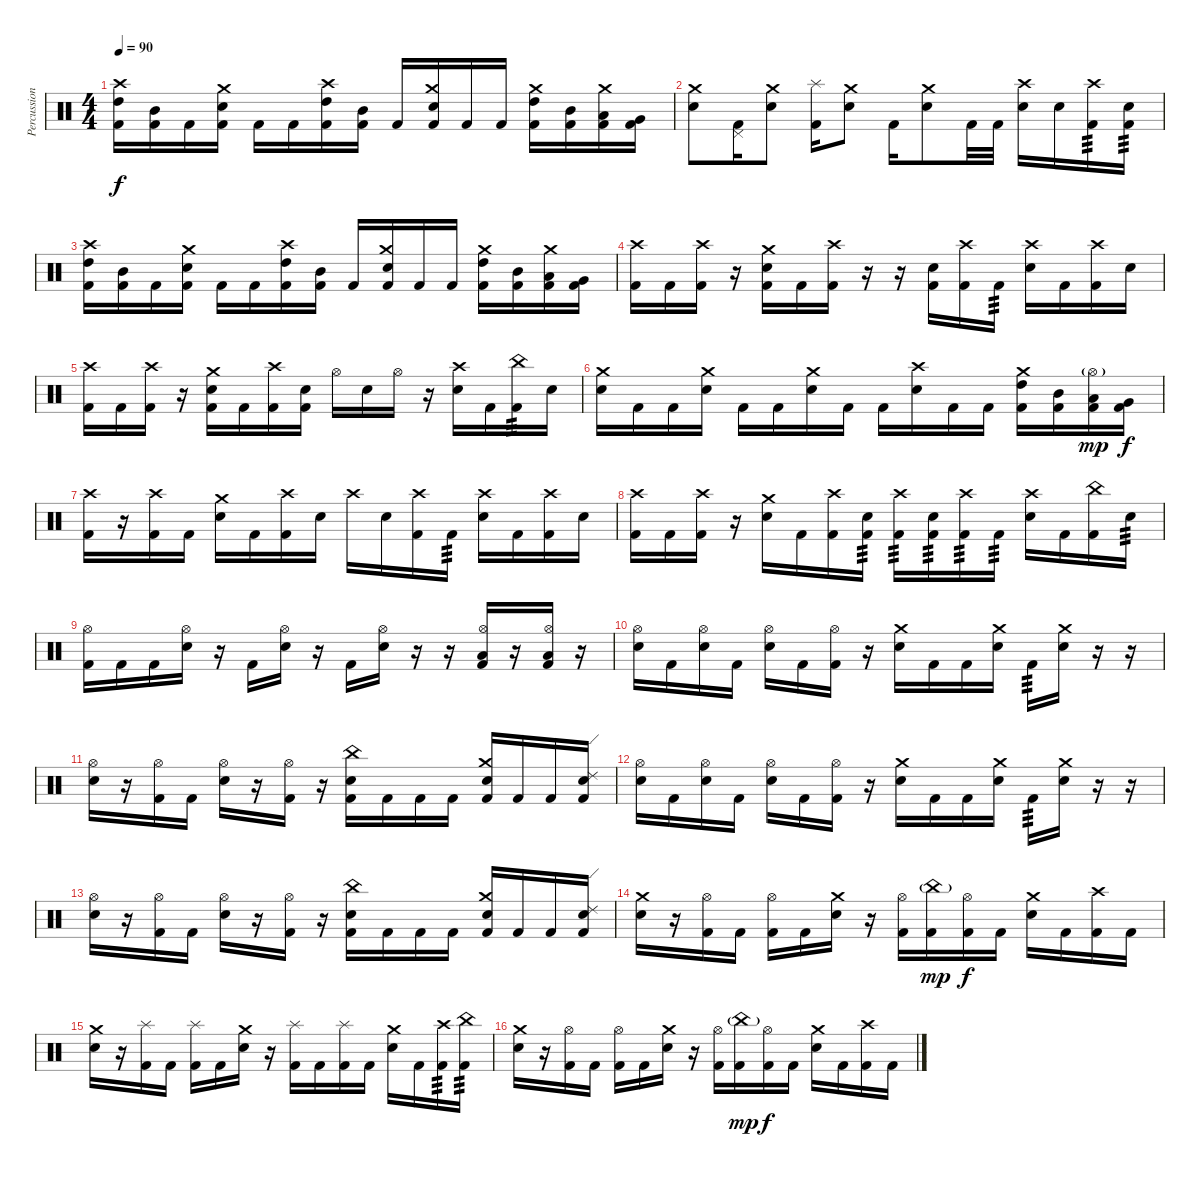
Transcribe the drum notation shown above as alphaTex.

\track ("Percussion" "Percussion") {instrument percussion}
\staff {score}
\articulation defaults
\ts (4 4)
\tempo 90
\clef neutral
\ks c
("Crash high (hit)" "High Tom (hit)" "Kick (hit) 2").16{dy f} ("Mid Tom (hit)" "Kick (hit) 2").16 "Kick (hit) 2".16 ("Crash medium (hit)" "Electric Snare (hit)" "Kick (hit) 2").16 "Kick (hit) 2".16 "Kick (hit) 2".16 ("Crash high (hit)" "High Tom (hit)" "Kick (hit) 2").16 ("Mid Tom (hit)" "Kick (hit) 2").16 "Kick (hit) 2".16 ("Crash medium (hit)" "Electric Snare (hit)" "Kick (hit) 2").16 "Kick (hit) 2".16 "Kick (hit) 2".16 ("Crash medium (hit)" "High Tom (hit)" "Kick (hit) 2").16 ("Mid Tom (hit)" "Kick (hit) 2").16 ("Crash medium (hit)" "Low Tom (hit)" "Kick (hit) 2").16 ("Very Low Tom (hit)" "Kick (hit) 2").16 |
("Crash medium (hit)" "Electric Snare (hit)").8 ("Pedal Hi-Hat (hit)" "Kick (hit) 2").16 ("Crash medium (hit)" "Electric Snare (hit)").8 ("Splash (hit)" "Kick (hit) 2").16 ("Crash medium (hit)" "Electric Snare (hit)").8 "Kick (hit) 2".16 ("Crash medium (hit)" "Electric Snare (hit)").8 "Kick (hit) 2".32 "Kick (hit) 2".32 ("Crash high (hit)" "Electric Snare (hit)").16 "Electric Snare (hit)".16 ("Crash high (hit)" "Kick (hit) 2").16{tp 3} ("Electric Snare (hit)" "Kick (hit) 2").16{tp 3} |
("Crash high (hit)" "High Tom (hit)" "Kick (hit) 2").16 ("Mid Tom (hit)" "Kick (hit) 2").16 "Kick (hit) 2".16 ("Crash medium (hit)" "Electric Snare (hit)" "Kick (hit) 2").16 "Kick (hit) 2".16 "Kick (hit) 2".16 ("Crash high (hit)" "High Tom (hit)" "Kick (hit) 2").16 ("Mid Tom (hit)" "Kick (hit) 2").16 "Kick (hit) 2".16 ("Crash medium (hit)" "Electric Snare (hit)" "Kick (hit) 2").16 "Kick (hit) 2".16 "Kick (hit) 2".16 ("Crash medium (hit)" "High Tom (hit)" "Kick (hit) 2").16 ("Mid Tom (hit)" "Kick (hit) 2").16 ("Crash medium (hit)" "Low Tom (hit)" "Kick (hit) 2").16 ("Very Low Tom (hit)" "Kick (hit) 2").16 |
("Crash high (hit)" "Kick (hit) 2").16 "Kick (hit) 2".16 ("Crash high (hit)" "Kick (hit) 2").16 r.16 ("Crash medium (hit)" "Electric Snare (hit)" "Kick (hit) 2").16 "Kick (hit) 2".16 ("Crash high (hit)" "Kick (hit) 2").16 r.16 r.16 ("Electric Snare (hit)" "Kick (hit) 2").16 ("Crash high (hit)" "Kick (hit) 2").16 "Kick (hit) 2".16{tp 3} ("Crash high (hit)" "Electric Snare (hit)").16 "Kick (hit) 2".16 ("Crash high (hit)" "Kick (hit) 2").16 "Electric Snare (hit)".16 |
("Crash high (hit)" "Kick (hit) 2").16 "Kick (hit) 2".16 ("Crash high (hit)" "Kick (hit) 2").16 r.16 ("Crash medium (hit)" "Electric Snare (hit)" "Kick (hit) 2").16 "Kick (hit) 2".16 ("Crash high (hit)" "Kick (hit) 2").16 ("Electric Snare (hit)" "Kick (hit) 2").16 "Hi-Hat (open)".16 "Electric Snare (hit)".16 "Hi-Hat (open)".16 r.16 ("Crash high (hit)" "Electric Snare (hit)").16 "Kick (hit) 2".16 ("China (hit)" "Kick (hit) 2").16{tp 3} "Electric Snare (hit)".16 |
("Crash medium (hit)" "Electric Snare (hit)").16 "Kick (hit) 2".16 "Kick (hit) 2".16 ("Crash medium (hit)" "Electric Snare (hit)").16 "Kick (hit) 2".16 "Kick (hit) 2".16 ("Crash medium (hit)" "Electric Snare (hit)").16 "Kick (hit) 2".16 "Kick (hit) 2".16 ("Crash high (hit)" "Electric Snare (hit)").16 "Kick (hit) 2".16 "Kick (hit) 2".16 ("Crash medium (hit)" "High Tom (hit)" "Kick (hit) 2").16 ("Mid Tom (hit)" "Kick (hit) 2").16 ("Hi-Hat (open)"{g} "Low Tom (hit)" "Kick (hit) 2").16{dy mp} ("Very Low Tom (hit)" "Kick (hit) 2").16{dy f} |
("Crash high (hit)" "Kick (hit) 2").16 r.16 ("Crash high (hit)" "Kick (hit) 2").16 "Kick (hit) 2".16 ("Crash medium (hit)" "Electric Snare (hit)").16 "Kick (hit) 2".16 ("Crash high (hit)" "Kick (hit) 2").16 "Electric Snare (hit)".16 "Crash high (hit)".16 "Electric Snare (hit)".16 ("Crash high (hit)" "Kick (hit) 2").16 "Kick (hit) 2".16{tp 3} ("Crash high (hit)" "Electric Snare (hit)").16 "Kick (hit) 2".16 ("Crash high (hit)" "Kick (hit) 2").16 "Electric Snare (hit)".16 |
("Crash high (hit)" "Kick (hit) 2").16 "Kick (hit) 2".16 ("Crash high (hit)" "Kick (hit) 2").16 r.16 ("Crash medium (hit)" "Electric Snare (hit)").16 "Kick (hit) 2".16 ("Crash high (hit)" "Kick (hit) 2").16 ("Electric Snare (hit)" "Kick (hit) 2").16{tp 3} ("Crash high (hit)" "Kick (hit) 2").16{tp 3} ("Electric Snare (hit)" "Kick (hit) 2").16{tp 3} ("Crash high (hit)" "Kick (hit) 2").16{tp 3} "Kick (hit) 2".16{tp 3} ("Crash high (hit)" "Electric Snare (hit)").16 "Kick (hit) 2".16 ("China (hit)" "Kick (hit) 2").16 "Electric Snare (hit)".16{tp 3} |
("Hi-Hat (open)" "Kick (hit) 2").16 "Kick (hit) 2".16 "Kick (hit) 2".16 ("Hi-Hat (open)" "Electric Snare (hit)").16 r.16 "Kick (hit) 2".16 ("Hi-Hat (open)" "Electric Snare (hit)").16 r.16 "Kick (hit) 2".16 ("Hi-Hat (open)" "Electric Snare (hit)").16 r.16 r.16 ("Hi-Hat (open)" "Low Floor Tom (hit)" "Kick (hit) 2").16 r.16 ("Hi-Hat (open)" "Low Floor Tom (hit)" "Kick (hit) 2").16 r.16 |
("Hi-Hat (open)" "Electric Snare (hit)").16 "Kick (hit) 2".16 ("Hi-Hat (open)" "Electric Snare (hit)").16 "Kick (hit) 2".16 ("Hi-Hat (open)" "Electric Snare (hit)").16 "Kick (hit) 2".16 ("Hi-Hat (open)" "Kick (hit) 2").16 r.16 ("Crash medium (hit)" "Electric Snare (hit)").16 "Kick (hit) 2".16 "Kick (hit) 2".16 ("Crash medium (hit)" "Electric Snare (hit)").16 "Kick (hit) 2".16{tp 3} ("Crash medium (hit)" "Electric Snare (hit)").16 r.16 r.16 |
("Hi-Hat (open)" "Electric Snare (hit)").16 r.16 ("Hi-Hat (open)" "Kick (hit) 2").16 "Kick (hit) 2".16 ("Hi-Hat (open)" "Electric Snare (hit)").16 r.16 ("Hi-Hat (open)" "Kick (hit) 2").16 r.16 ("China (hit)" "Electric Snare (hit)" "Kick (hit) 2").16 "Kick (hit) 2".16 "Kick (hit) 2".16 "Kick (hit) 2".16 ("Crash medium (hit)" "Electric Snare (hit)" "Kick (hit) 2").16 "Kick (hit) 2".16 "Kick (hit) 2".16 ("Ride (edge) 2" "Electric Snare (hit)" "Kick (hit) 2").16 |
("Hi-Hat (open)" "Electric Snare (hit)").16 "Kick (hit) 2".16 ("Hi-Hat (open)" "Electric Snare (hit)").16 "Kick (hit) 2".16 ("Hi-Hat (open)" "Electric Snare (hit)").16 "Kick (hit) 2".16 ("Hi-Hat (open)" "Kick (hit) 2").16 r.16 ("Crash medium (hit)" "Electric Snare (hit)").16 "Kick (hit) 2".16 "Kick (hit) 2".16 ("Crash medium (hit)" "Electric Snare (hit)").16 "Kick (hit) 2".16{tp 3} ("Crash medium (hit)" "Electric Snare (hit)").16 r.16 r.16 |
("Hi-Hat (open)" "Electric Snare (hit)").16 r.16 ("Hi-Hat (open)" "Kick (hit) 2").16 "Kick (hit) 2".16 ("Hi-Hat (open)" "Electric Snare (hit)").16 r.16 ("Hi-Hat (open)" "Kick (hit) 2").16 r.16 ("China (hit)" "Electric Snare (hit)" "Kick (hit) 2").16 "Kick (hit) 2".16 "Kick (hit) 2".16 "Kick (hit) 2".16 ("Crash medium (hit)" "Electric Snare (hit)" "Kick (hit) 2").16 "Kick (hit) 2".16 "Kick (hit) 2".16 ("Ride (edge) 2" "Electric Snare (hit)" "Kick (hit) 2").16 |
("Crash medium (hit)" "Electric Snare (hit)").16 r.16 ("Hi-Hat (open)" "Kick (hit) 2").16 "Kick (hit) 2".16 ("Hi-Hat (open)" "Kick (hit) 2").16 "Kick (hit) 2".16 ("Crash medium (hit)" "Electric Snare (hit)").16 r.16 ("Hi-Hat (open)" "Kick (hit) 2").16 ("China (hit)"{g} "Kick (hit) 2").16{dy mp} ("Hi-Hat (open)" "Kick (hit) 2").16{dy f} "Kick (hit) 2".16 ("Crash medium (hit)" "Electric Snare (hit)").16 "Kick (hit) 2".16 ("Crash high (hit)" "Kick (hit) 2").16 "Kick (hit) 2".16 |
("Crash medium (hit)" "Electric Snare (hit)").16 r.16 ("Splash (hit)" "Kick (hit) 2").16 "Kick (hit) 2".16 ("Splash (hit)" "Kick (hit) 2").16 "Kick (hit) 2".16 ("Crash medium (hit)" "Electric Snare (hit)").16 r.16 ("Splash (hit)" "Kick (hit) 2").16 "Kick (hit) 2".16 ("Splash (hit)" "Kick (hit) 2").16 "Kick (hit) 2".16 ("Crash medium (hit)" "Electric Snare (hit)").16 "Kick (hit) 2".16 ("Crash high (hit)" "Kick (hit) 2").16{tp 3} ("China (hit)" "Kick (hit) 2").16{tp 3} |
("Crash medium (hit)" "Electric Snare (hit)").16 r.16 ("Hi-Hat (open)" "Kick (hit) 2").16 "Kick (hit) 2".16 ("Hi-Hat (open)" "Kick (hit) 2").16 "Kick (hit) 2".16 ("Crash medium (hit)" "Electric Snare (hit)").16 r.16 ("Hi-Hat (open)" "Kick (hit) 2").16 ("China (hit)"{g} "Kick (hit) 2").16{dy mp} ("Hi-Hat (open)" "Kick (hit) 2").16{dy f} "Kick (hit) 2".16 ("Crash medium (hit)" "Electric Snare (hit)").16 "Kick (hit) 2".16 ("Crash high (hit)" "Kick (hit) 2").16 "Kick (hit) 2".16
